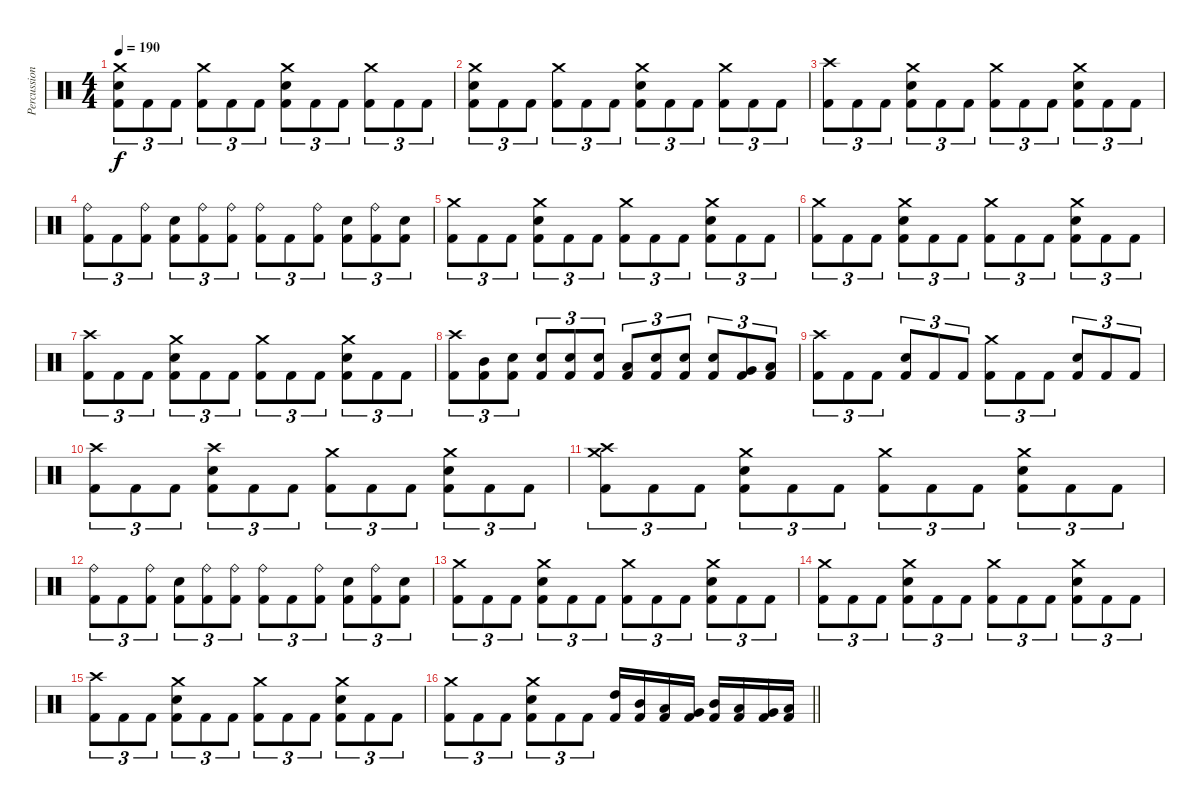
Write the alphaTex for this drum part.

\track ("Percussion" "Percussion") {instrument percussion}
\staff {score}
\articulation defaults
\ts (4 4)
\tempo 190
\clef neutral
\ks c
("Crash medium (hit)" "Snare (hit) 2" "Kick (hit) 2").8{tu (3 2) dy f} "Kick (hit) 2".8{tu (3 2)} "Kick (hit) 2".8{tu (3 2)} ("Crash medium (hit)" "Kick (hit) 2").8{tu (3 2)} "Kick (hit) 2".8{tu (3 2)} "Kick (hit) 2".8{tu (3 2)} ("Crash medium (hit)" "Snare (hit) 2" "Kick (hit) 2").8{tu (3 2)} "Kick (hit) 2".8{tu (3 2)} "Kick (hit) 2".8{tu (3 2)} ("Crash medium (hit)" "Kick (hit) 2").8{tu (3 2)} "Kick (hit) 2".8{tu (3 2)} "Kick (hit) 2".8{tu (3 2)} |
("Crash medium (hit)" "Snare (hit) 2" "Kick (hit) 2").8{tu (3 2)} "Kick (hit) 2".8{tu (3 2)} "Kick (hit) 2".8{tu (3 2)} ("Crash medium (hit)" "Kick (hit) 2").8{tu (3 2)} "Kick (hit) 2".8{tu (3 2)} "Kick (hit) 2".8{tu (3 2)} ("Crash medium (hit)" "Snare (hit) 2" "Kick (hit) 2").8{tu (3 2)} "Kick (hit) 2".8{tu (3 2)} "Kick (hit) 2".8{tu (3 2)} ("Crash medium (hit)" "Kick (hit) 2").8{tu (3 2)} "Kick (hit) 2".8{tu (3 2)} "Kick (hit) 2".8{tu (3 2)} |
("Crash high (hit)" "Kick (hit) 2").8{tu (3 2)} "Kick (hit) 2".8{tu (3 2)} "Kick (hit) 2".8{tu (3 2)} ("Crash medium (hit)" "Snare (hit) 2" "Kick (hit) 2").8{tu (3 2)} "Kick (hit) 2".8{tu (3 2)} "Kick (hit) 2".8{tu (3 2)} ("Crash medium (hit)" "Kick (hit) 2").8{tu (3 2)} "Kick (hit) 2".8{tu (3 2)} "Kick (hit) 2".8{tu (3 2)} ("Crash medium (hit)" "Snare (hit) 2" "Kick (hit) 2").8{tu (3 2)} "Kick (hit) 2".8{tu (3 2)} "Kick (hit) 2".8{tu (3 2)} |
("Ride (bell)" "Kick (hit) 2").8{tu (3 2)} "Kick (hit) 2".8{tu (3 2)} ("Ride (bell)" "Kick (hit) 2").8{tu (3 2)} ("Snare (hit) 2" "Kick (hit) 2").8{tu (3 2)} ("Ride (bell)" "Kick (hit) 2").8{tu (3 2)} ("Ride (bell)" "Kick (hit) 2").8{tu (3 2)} ("Ride (bell)" "Kick (hit) 2").8{tu (3 2)} "Kick (hit) 2".8{tu (3 2)} ("Ride (bell)" "Kick (hit) 2").8{tu (3 2)} ("Snare (hit) 2" "Kick (hit) 2").8{tu (3 2)} ("Ride (bell)" "Kick (hit) 2").8{tu (3 2)} ("Snare (hit) 2" "Kick (hit) 2").8{tu (3 2)} |
("Crash medium (hit)" "Kick (hit) 2").8{tu (3 2)} "Kick (hit) 2".8{tu (3 2)} "Kick (hit) 2".8{tu (3 2)} ("Crash medium (hit)" "Snare (hit) 2" "Kick (hit) 2").8{tu (3 2)} "Kick (hit) 2".8{tu (3 2)} "Kick (hit) 2".8{tu (3 2)} ("Crash medium (hit)" "Kick (hit) 2").8{tu (3 2)} "Kick (hit) 2".8{tu (3 2)} "Kick (hit) 2".8{tu (3 2)} ("Crash medium (hit)" "Snare (hit) 2" "Kick (hit) 2").8{tu (3 2)} "Kick (hit) 2".8{tu (3 2)} "Kick (hit) 2".8{tu (3 2)} |
("Crash medium (hit)" "Kick (hit) 2").8{tu (3 2)} "Kick (hit) 2".8{tu (3 2)} "Kick (hit) 2".8{tu (3 2)} ("Crash medium (hit)" "Snare (hit) 2" "Kick (hit) 2").8{tu (3 2)} "Kick (hit) 2".8{tu (3 2)} "Kick (hit) 2".8{tu (3 2)} ("Crash medium (hit)" "Kick (hit) 2").8{tu (3 2)} "Kick (hit) 2".8{tu (3 2)} "Kick (hit) 2".8{tu (3 2)} ("Crash medium (hit)" "Snare (hit) 2" "Kick (hit) 2").8{tu (3 2)} "Kick (hit) 2".8{tu (3 2)} "Kick (hit) 2".8{tu (3 2)} |
("Crash high (hit)" "Kick (hit) 2").8{tu (3 2)} "Kick (hit) 2".8{tu (3 2)} "Kick (hit) 2".8{tu (3 2)} ("Crash medium (hit)" "Snare (hit) 2" "Kick (hit) 2").8{tu (3 2)} "Kick (hit) 2".8{tu (3 2)} "Kick (hit) 2".8{tu (3 2)} ("Crash medium (hit)" "Kick (hit) 2").8{tu (3 2)} "Kick (hit) 2".8{tu (3 2)} "Kick (hit) 2".8{tu (3 2)} ("Crash medium (hit)" "Snare (hit) 2" "Kick (hit) 2").8{tu (3 2)} "Kick (hit) 2".8{tu (3 2)} "Kick (hit) 2".8{tu (3 2)} |
("Crash high (hit)" "Kick (hit) 2").8{tu (3 2)} ("Mid Tom (hit)" "Kick (hit) 2").8{tu (3 2)} ("Snare (hit) 2" "Kick (hit) 2").8{tu (3 2)} ("Snare (hit) 2" "Kick (hit) 2").8{tu (3 2)} ("Snare (hit) 2" "Kick (hit) 2").8{tu (3 2)} ("Snare (hit) 2" "Kick (hit) 2").8{tu (3 2)} ("Low Tom (hit)" "Kick (hit) 2").8{tu (3 2)} ("Snare (hit) 2" "Kick (hit) 2").8{tu (3 2)} ("Snare (hit) 2" "Kick (hit) 2").8{tu (3 2)} ("Snare (hit) 2" "Kick (hit) 2").8{tu (3 2)} ("Very Low Tom (hit)" "Kick (hit) 2").8{tu (3 2)} ("Low Floor Tom (hit)" "Kick (hit) 2").8{tu (3 2)} |
("Crash high (hit)" "Kick (hit) 2").8{tu (3 2)} "Kick (hit) 2".8{tu (3 2)} "Kick (hit) 2".8{tu (3 2)} ("Snare (hit) 2" "Kick (hit) 2").8{tu (3 2)} "Kick (hit) 2".8{tu (3 2)} "Kick (hit) 2".8{tu (3 2)} ("Crash medium (hit)" "Kick (hit) 2").8{tu (3 2)} "Kick (hit) 2".8{tu (3 2)} "Kick (hit) 2".8{tu (3 2)} ("Snare (hit) 2" "Kick (hit) 2").8{tu (3 2)} "Kick (hit) 2".8{tu (3 2)} "Kick (hit) 2".8{tu (3 2)} |
("Crash high (hit)" "Kick (hit) 2").8{tu (3 2)} "Kick (hit) 2".8{tu (3 2)} "Kick (hit) 2".8{tu (3 2)} ("Crash high (hit)" "Snare (hit) 2" "Kick (hit) 2").8{tu (3 2)} "Kick (hit) 2".8{tu (3 2)} "Kick (hit) 2".8{tu (3 2)} ("Crash medium (hit)" "Kick (hit) 2").8{tu (3 2)} "Kick (hit) 2".8{tu (3 2)} "Kick (hit) 2".8{tu (3 2)} ("Crash medium (hit)" "Snare (hit) 2" "Kick (hit) 2").8{tu (3 2)} "Kick (hit) 2".8{tu (3 2)} "Kick (hit) 2".8{tu (3 2)} |
("Crash medium (hit)" "Crash high (hit)" "Kick (hit) 2").8{tu (3 2)} "Kick (hit) 2".8{tu (3 2)} "Kick (hit) 2".8{tu (3 2)} ("Crash medium (hit)" "Snare (hit) 2" "Kick (hit) 2").8{tu (3 2)} "Kick (hit) 2".8{tu (3 2)} "Kick (hit) 2".8{tu (3 2)} ("Crash medium (hit)" "Kick (hit) 2").8{tu (3 2)} "Kick (hit) 2".8{tu (3 2)} "Kick (hit) 2".8{tu (3 2)} ("Crash medium (hit)" "Snare (hit) 2" "Kick (hit) 2").8{tu (3 2)} "Kick (hit) 2".8{tu (3 2)} "Kick (hit) 2".8{tu (3 2)} |
("Ride (bell)" "Kick (hit) 2").8{tu (3 2)} "Kick (hit) 2".8{tu (3 2)} ("Ride (bell)" "Kick (hit) 2").8{tu (3 2)} ("Snare (hit) 2" "Kick (hit) 2").8{tu (3 2)} ("Ride (bell)" "Kick (hit) 2").8{tu (3 2)} ("Ride (bell)" "Kick (hit) 2").8{tu (3 2)} ("Ride (bell)" "Kick (hit) 2").8{tu (3 2)} "Kick (hit) 2".8{tu (3 2)} ("Ride (bell)" "Kick (hit) 2").8{tu (3 2)} ("Snare (hit) 2" "Kick (hit) 2").8{tu (3 2)} ("Ride (bell)" "Kick (hit) 2").8{tu (3 2)} ("Snare (hit) 2" "Kick (hit) 2").8{tu (3 2)} |
("Crash medium (hit)" "Kick (hit) 2").8{tu (3 2)} "Kick (hit) 2".8{tu (3 2)} "Kick (hit) 2".8{tu (3 2)} ("Crash medium (hit)" "Snare (hit) 2" "Kick (hit) 2").8{tu (3 2)} "Kick (hit) 2".8{tu (3 2)} "Kick (hit) 2".8{tu (3 2)} ("Crash medium (hit)" "Kick (hit) 2").8{tu (3 2)} "Kick (hit) 2".8{tu (3 2)} "Kick (hit) 2".8{tu (3 2)} ("Crash medium (hit)" "Snare (hit) 2" "Kick (hit) 2").8{tu (3 2)} "Kick (hit) 2".8{tu (3 2)} "Kick (hit) 2".8{tu (3 2)} |
("Crash medium (hit)" "Kick (hit) 2").8{tu (3 2)} "Kick (hit) 2".8{tu (3 2)} "Kick (hit) 2".8{tu (3 2)} ("Crash medium (hit)" "Snare (hit) 2" "Kick (hit) 2").8{tu (3 2)} "Kick (hit) 2".8{tu (3 2)} "Kick (hit) 2".8{tu (3 2)} ("Crash medium (hit)" "Kick (hit) 2").8{tu (3 2)} "Kick (hit) 2".8{tu (3 2)} "Kick (hit) 2".8{tu (3 2)} ("Crash medium (hit)" "Snare (hit) 2" "Kick (hit) 2").8{tu (3 2)} "Kick (hit) 2".8{tu (3 2)} "Kick (hit) 2".8{tu (3 2)} |
("Crash high (hit)" "Kick (hit) 2").8{tu (3 2)} "Kick (hit) 2".8{tu (3 2)} "Kick (hit) 2".8{tu (3 2)} ("Crash medium (hit)" "Snare (hit) 2" "Kick (hit) 2").8{tu (3 2)} "Kick (hit) 2".8{tu (3 2)} "Kick (hit) 2".8{tu (3 2)} ("Crash medium (hit)" "Kick (hit) 2").8{tu (3 2)} "Kick (hit) 2".8{tu (3 2)} "Kick (hit) 2".8{tu (3 2)} ("Crash medium (hit)" "Snare (hit) 2" "Kick (hit) 2").8{tu (3 2)} "Kick (hit) 2".8{tu (3 2)} "Kick (hit) 2".8{tu (3 2)} |
\barLineRight lightlight
("Crash medium (hit)" "Kick (hit) 2").8{tu (3 2)} "Kick (hit) 2".8{tu (3 2)} "Kick (hit) 2".8{tu (3 2)} ("Crash medium (hit)" "Snare (hit) 2" "Kick (hit) 2").8{tu (3 2)} "Kick (hit) 2".8{tu (3 2)} "Kick (hit) 2".8{tu (3 2)} ("High Tom (hit)" "Kick (hit) 2").16 ("Mid Tom (hit)" "Kick (hit) 2").16 ("Low Tom (hit)" "Kick (hit) 2").16 ("Very Low Tom (hit)" "Kick (hit) 2").16 ("Mid Tom (hit)" "Kick (hit) 2").16 ("Low Tom (hit)" "Kick (hit) 2").16 ("Very Low Tom (hit)" "Kick (hit) 2").16 ("Low Floor Tom (hit)" "Kick (hit) 2").16
